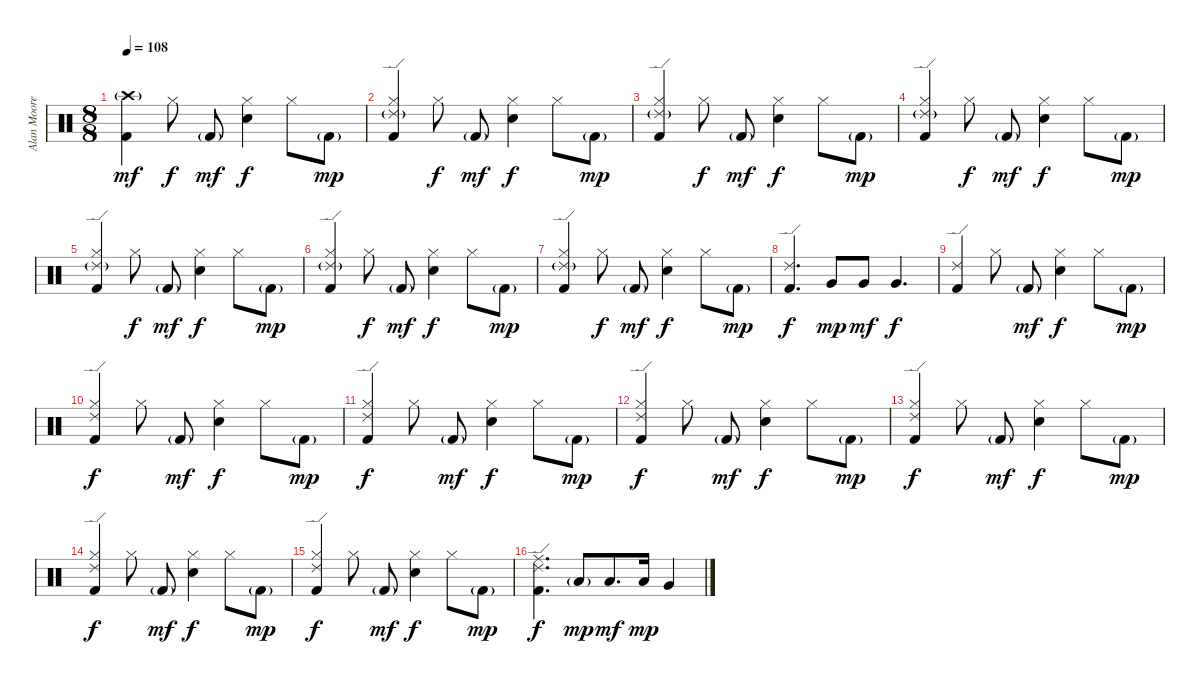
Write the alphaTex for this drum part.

\track ("Alan Moore" "Alan Moore") {instrument percussion}
\staff {score}
\articulation defaults
\ts (8 8)
\tempo 108
\clef neutral
\ks c
("Crash high (hit)"{g} "Kick (hit) 2").4{dy mf} "Hi-Hat (closed)".8{dy f} "Kick (hit) 2"{g}.8{dy mf} ("Hi-Hat (closed)" "Snare (hit) 2").4{dy f} "Hi-Hat (closed)".8 "Kick (hit) 2"{g}.8{dy mp} |
("Hi-Hat (closed)" "Ride (edge) 2"{g} "Kick (hit) 2").4 "Hi-Hat (closed)".8{dy f} "Kick (hit) 2"{g}.8{dy mf} ("Hi-Hat (closed)" "Snare (hit) 2").4{dy f} "Hi-Hat (closed)".8 "Kick (hit) 2"{g}.8{dy mp} |
("Hi-Hat (closed)" "Ride (edge) 2"{g} "Kick (hit) 2").4 "Hi-Hat (closed)".8{dy f} "Kick (hit) 2"{g}.8{dy mf} ("Hi-Hat (closed)" "Snare (hit) 2").4{dy f} "Hi-Hat (closed)".8 "Kick (hit) 2"{g}.8{dy mp} |
("Hi-Hat (closed)" "Ride (edge) 2"{g} "Kick (hit) 2").4 "Hi-Hat (closed)".8{dy f} "Kick (hit) 2"{g}.8{dy mf} ("Hi-Hat (closed)" "Snare (hit) 2").4{dy f} "Hi-Hat (closed)".8 "Kick (hit) 2"{g}.8{dy mp} |
("Hi-Hat (closed)" "Ride (edge) 2"{g} "Kick (hit) 2").4 "Hi-Hat (closed)".8{dy f} "Kick (hit) 2"{g}.8{dy mf} ("Hi-Hat (closed)" "Snare (hit) 2").4{dy f} "Hi-Hat (closed)".8 "Kick (hit) 2"{g}.8{dy mp} |
("Hi-Hat (closed)" "Ride (edge) 2"{g} "Kick (hit) 2").4 "Hi-Hat (closed)".8{dy f} "Kick (hit) 2"{g}.8{dy mf} ("Hi-Hat (closed)" "Snare (hit) 2").4{dy f} "Hi-Hat (closed)".8 "Kick (hit) 2"{g}.8{dy mp} |
("Hi-Hat (closed)" "Ride (edge) 2"{g} "Kick (hit) 2").4 "Hi-Hat (closed)".8{dy f} "Kick (hit) 2"{g}.8{dy mf} ("Hi-Hat (closed)" "Snare (hit) 2").4{dy f} "Hi-Hat (closed)".8 "Kick (hit) 2"{g}.8{dy mp} |
("Ride (edge) 2" "Kick (hit) 2").4{d dy f} "Very Low Tom (hit)".8{dy mp} "Very Low Tom (hit)".8{dy mf} "Very Low Tom (hit)".4{d dy f} |
("Ride (edge) 2" "Kick (hit) 2").4 "Hi-Hat (closed)".8 "Kick (hit) 2"{g}.8{dy mf} ("Hi-Hat (closed)" "Snare (hit) 2").4{dy f} "Hi-Hat (closed)".8 "Kick (hit) 2"{g}.8{dy mp} |
("Hi-Hat (closed)" "Ride (edge) 2" "Kick (hit) 2").4{dy f} "Hi-Hat (closed)".8 "Kick (hit) 2"{g}.8{dy mf} ("Hi-Hat (closed)" "Snare (hit) 2").4{dy f} "Hi-Hat (closed)".8 "Kick (hit) 2"{g}.8{dy mp} |
("Hi-Hat (closed)" "Ride (edge) 2" "Kick (hit) 2").4{dy f} "Hi-Hat (closed)".8 "Kick (hit) 2"{g}.8{dy mf} ("Hi-Hat (closed)" "Snare (hit) 2").4{dy f} "Hi-Hat (closed)".8 "Kick (hit) 2"{g}.8{dy mp} |
("Hi-Hat (closed)" "Ride (edge) 2" "Kick (hit) 2").4{dy f} "Hi-Hat (closed)".8 "Kick (hit) 2"{g}.8{dy mf} ("Hi-Hat (closed)" "Snare (hit) 2").4{dy f} "Hi-Hat (closed)".8 "Kick (hit) 2"{g}.8{dy mp} |
("Hi-Hat (closed)" "Ride (edge) 2" "Kick (hit) 2").4{dy f} "Hi-Hat (closed)".8 "Kick (hit) 2"{g}.8{dy mf} ("Hi-Hat (closed)" "Snare (hit) 2").4{dy f} "Hi-Hat (closed)".8 "Kick (hit) 2"{g}.8{dy mp} |
("Hi-Hat (closed)" "Ride (edge) 2" "Kick (hit) 2").4{dy f} "Hi-Hat (closed)".8 "Kick (hit) 2"{g}.8{dy mf} ("Hi-Hat (closed)" "Snare (hit) 2").4{dy f} "Hi-Hat (closed)".8 "Kick (hit) 2"{g}.8{dy mp} |
("Hi-Hat (closed)" "Ride (edge) 2" "Kick (hit) 2").4{dy f} "Hi-Hat (closed)".8 "Kick (hit) 2"{g}.8{dy mf} ("Hi-Hat (closed)" "Snare (hit) 2").4{dy f} "Hi-Hat (closed)".8 "Kick (hit) 2"{g}.8{dy mp} |
("Ride (edge) 2" "Ride (middle)" "Kick (hit) 2").4{d dy f} "Low Tom (hit)"{g}.8{dy mp} "Low Tom (hit)".8{d dy mf} "Low Tom (hit)".16{dy mp} "Very Low Tom (hit)".4
